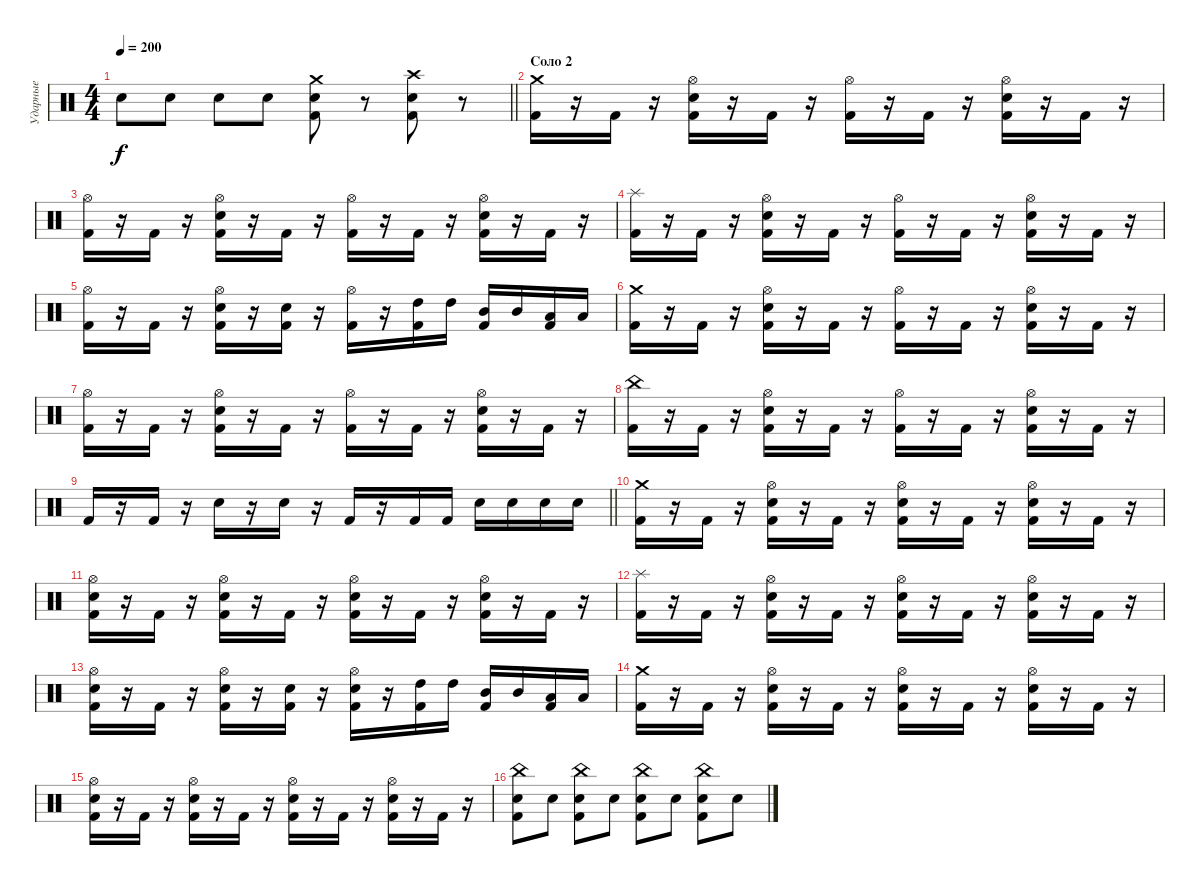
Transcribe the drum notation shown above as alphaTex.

\track ("Ударные" "Ударные") {instrument percussion}
\staff {score}
\articulation defaults
\ts (4 4)
\tempo 200
\clef neutral
\barLineRight lightlight
\ks c "Electric Snare (hit)".8{dy f} "Electric Snare (hit)".8 "Electric Snare (hit)".8 "Electric Snare (hit)".8
("Kick (hit) 2" "Electric Snare (hit)" "Crash medium (hit)").8 r.8 ("Kick (hit) 2" "Electric Snare (hit)" "Crash high (hit)").8 r.8 |
\section ("" "Соло 2")
("Kick (hit) 2" "Crash medium (hit)").16 r.16 "Kick (hit) 2".16 r.16 ("Kick (hit) 2" "Electric Snare (hit)" "Hi-Hat (open)").16 r.16 "Kick (hit) 2".16 r.16 ("Kick (hit) 2" "Hi-Hat (open)").16 r.16 "Kick (hit) 2".16 r.16 ("Kick (hit) 2" "Electric Snare (hit)" "Hi-Hat (open)").16 r.16 "Kick (hit) 2".16 r.16 |
("Kick (hit) 2" "Hi-Hat (open)").16 r.16 "Kick (hit) 2".16 r.16 ("Kick (hit) 2" "Electric Snare (hit)" "Hi-Hat (open)").16 r.16 "Kick (hit) 2".16 r.16 ("Kick (hit) 2" "Hi-Hat (open)").16 r.16 "Kick (hit) 2".16 r.16 ("Kick (hit) 2" "Electric Snare (hit)" "Hi-Hat (open)").16 r.16 "Kick (hit) 2".16 r.16 |
("Kick (hit) 2" "Splash (hit)").16 r.16 "Kick (hit) 2".16 r.16 ("Kick (hit) 2" "Electric Snare (hit)" "Hi-Hat (open)").16 r.16 "Kick (hit) 2".16 r.16 ("Kick (hit) 2" "Hi-Hat (open)").16 r.16 "Kick (hit) 2".16 r.16 ("Kick (hit) 2" "Electric Snare (hit)" "Hi-Hat (open)").16 r.16 "Kick (hit) 2".16 r.16 |
("Kick (hit) 2" "Hi-Hat (open)").16 r.16 "Kick (hit) 2".16 r.16 ("Kick (hit) 2" "Electric Snare (hit)" "Hi-Hat (open)").16 r.16 ("Kick (hit) 2" "Electric Snare (hit)").16 r.16 ("Kick (hit) 2" "Hi-Hat (open)").16 r.16 ("Kick (hit) 2" "High Tom (hit)").16 "High Tom (hit)".16 ("Kick (hit) 2" "Mid Tom (hit)").16 "Mid Tom (hit)".16 ("Kick (hit) 2" "Low Tom (hit)").16 "Low Tom (hit)".16 |
("Kick (hit) 2" "Crash medium (hit)").16 r.16 "Kick (hit) 2".16 r.16 ("Kick (hit) 2" "Electric Snare (hit)" "Hi-Hat (open)").16 r.16 "Kick (hit) 2".16 r.16 ("Kick (hit) 2" "Hi-Hat (open)").16 r.16 "Kick (hit) 2".16 r.16 ("Kick (hit) 2" "Electric Snare (hit)" "Hi-Hat (open)").16 r.16 "Kick (hit) 2".16 r.16 |
("Kick (hit) 2" "Hi-Hat (open)").16 r.16 "Kick (hit) 2".16 r.16 ("Kick (hit) 2" "Electric Snare (hit)" "Hi-Hat (open)").16 r.16 "Kick (hit) 2".16 r.16 ("Kick (hit) 2" "Hi-Hat (open)").16 r.16 "Kick (hit) 2".16 r.16 ("Kick (hit) 2" "Electric Snare (hit)" "Hi-Hat (open)").16 r.16 "Kick (hit) 2".16 r.16 |
("Kick (hit) 2" "China (hit)").16 r.16 "Kick (hit) 2".16 r.16 ("Kick (hit) 2" "Electric Snare (hit)" "Hi-Hat (open)").16 r.16 "Kick (hit) 2".16 r.16 ("Kick (hit) 2" "Hi-Hat (open)").16 r.16 "Kick (hit) 2".16 r.16 ("Kick (hit) 2" "Electric Snare (hit)" "Hi-Hat (open)").16 r.16 "Kick (hit) 2".16 r.16 |
\barLineRight lightlight "Kick (hit) 2".16
r.16 "Kick (hit) 2".16 r.16 "Electric Snare (hit)".16 r.16 "Electric Snare (hit)".16 r.16 "Kick (hit) 2".16 r.16 "Kick (hit) 2".16 "Kick (hit) 2".16 "Electric Snare (hit)".16 "Electric Snare (hit)".16 "Electric Snare (hit)".16 "Electric Snare (hit)".16 |
("Kick (hit) 2" "Crash medium (hit)").16 r.16 "Kick (hit) 2".16 r.16 ("Kick (hit) 2" "Electric Snare (hit)" "Hi-Hat (open)").16 r.16 "Kick (hit) 2".16 r.16 ("Kick (hit) 2" "Electric Snare (hit)" "Hi-Hat (open)").16 r.16 "Kick (hit) 2".16 r.16 ("Kick (hit) 2" "Electric Snare (hit)" "Hi-Hat (open)").16 r.16 "Kick (hit) 2".16 r.16 |
("Kick (hit) 2" "Electric Snare (hit)" "Hi-Hat (open)").16 r.16 "Kick (hit) 2".16 r.16 ("Kick (hit) 2" "Electric Snare (hit)" "Hi-Hat (open)").16 r.16 "Kick (hit) 2".16 r.16 ("Kick (hit) 2" "Electric Snare (hit)" "Hi-Hat (open)").16 r.16 "Kick (hit) 2".16 r.16 ("Kick (hit) 2" "Electric Snare (hit)" "Hi-Hat (open)").16 r.16 "Kick (hit) 2".16 r.16 |
("Kick (hit) 2" "Splash (hit)").16 r.16 "Kick (hit) 2".16 r.16 ("Kick (hit) 2" "Electric Snare (hit)" "Hi-Hat (open)").16 r.16 "Kick (hit) 2".16 r.16 ("Kick (hit) 2" "Electric Snare (hit)" "Hi-Hat (open)").16 r.16 "Kick (hit) 2".16 r.16 ("Kick (hit) 2" "Electric Snare (hit)" "Hi-Hat (open)").16 r.16 "Kick (hit) 2".16 r.16 |
("Kick (hit) 2" "Electric Snare (hit)" "Hi-Hat (open)").16 r.16 "Kick (hit) 2".16 r.16 ("Kick (hit) 2" "Electric Snare (hit)" "Hi-Hat (open)").16 r.16 ("Kick (hit) 2" "Electric Snare (hit)").16 r.16 ("Kick (hit) 2" "Electric Snare (hit)" "Hi-Hat (open)").16 r.16 ("Kick (hit) 2" "High Tom (hit)").16 "High Tom (hit)".16 ("Kick (hit) 2" "Mid Tom (hit)").16 "Mid Tom (hit)".16 ("Kick (hit) 2" "Low Tom (hit)").16 "Low Tom (hit)".16 |
("Kick (hit) 2" "Crash medium (hit)").16 r.16 "Kick (hit) 2".16 r.16 ("Kick (hit) 2" "Electric Snare (hit)" "Hi-Hat (open)").16 r.16 "Kick (hit) 2".16 r.16 ("Kick (hit) 2" "Electric Snare (hit)" "Hi-Hat (open)").16 r.16 "Kick (hit) 2".16 r.16 ("Kick (hit) 2" "Electric Snare (hit)" "Hi-Hat (open)").16 r.16 "Kick (hit) 2".16 r.16 |
("Kick (hit) 2" "Electric Snare (hit)" "Hi-Hat (open)").16 r.16 "Kick (hit) 2".16 r.16 ("Kick (hit) 2" "Electric Snare (hit)" "Hi-Hat (open)").16 r.16 "Kick (hit) 2".16 r.16 ("Kick (hit) 2" "Electric Snare (hit)" "Hi-Hat (open)").16 r.16 "Kick (hit) 2".16 r.16 ("Kick (hit) 2" "Electric Snare (hit)" "Hi-Hat (open)").16 r.16 "Kick (hit) 2".16 r.16 |
("Kick (hit) 2" "Electric Snare (hit)" "China (hit)").8 "Electric Snare (hit)".8 ("Kick (hit) 2" "Electric Snare (hit)" "China (hit)").8 "Electric Snare (hit)".8 ("Kick (hit) 2" "Electric Snare (hit)" "China (hit)").8 "Electric Snare (hit)".8 ("Kick (hit) 2" "Electric Snare (hit)" "China (hit)").8 "Electric Snare (hit)".8
